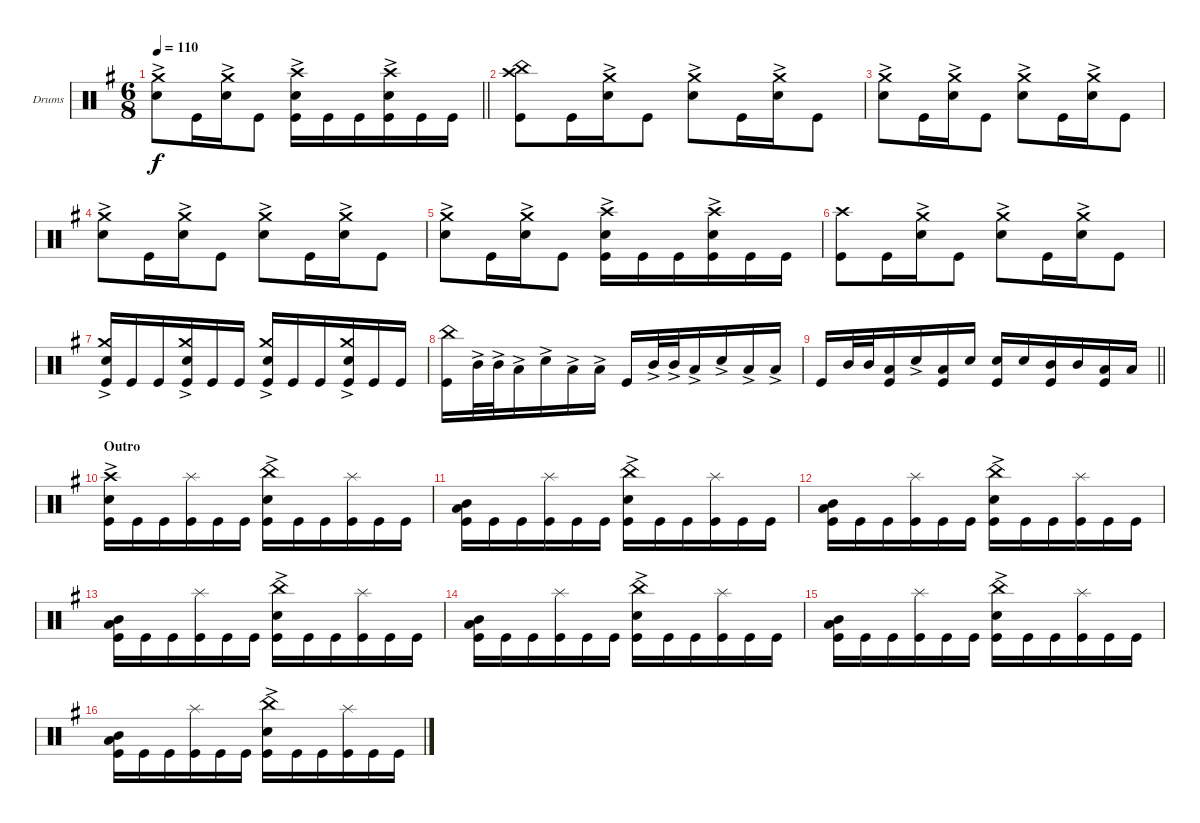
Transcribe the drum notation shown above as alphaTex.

\bracketExtendMode groupsimilarinstruments
\firstSystemTrackNameOrientation horizontal
\otherSystemsTrackNameOrientation horizontal
\track ("Drumkit" "Drums") {instrument percussion}
\staff {score}
\articulation defaults
\ts (6 8)
\tempo 110
\clef neutral
\barLineRight lightlight
\ks eminor
("Snare (hit) 2"{ac} "Crash medium (hit)").8{dy f} "Kick (hit)".16 ("Snare (hit) 2"{ac} "Crash medium (hit)").16 "Kick (hit)".8 ("Kick (hit)" "Snare (hit) 2"{ac} "Crash high (hit)").16 "Kick (hit)".16 "Kick (hit)".16 ("Kick (hit)" "Snare (hit) 2"{ac} "Crash high (hit)").16 "Kick (hit)".16 "Kick (hit)".16 |
("Kick (hit)" "Crash high (hit)" "China (hit)").8 "Kick (hit)".16 ("Snare (hit) 2"{ac} "Crash medium (hit)").16 "Kick (hit)".8 ("Snare (hit) 2"{ac} "Crash medium (hit)").8 "Kick (hit)".16 ("Snare (hit) 2"{ac} "Crash medium (hit)").16 "Kick (hit)".8 |
("Snare (hit) 2"{ac} "Crash medium (hit)").8 "Kick (hit)".16 ("Snare (hit) 2"{ac} "Crash medium (hit)").16 "Kick (hit)".8 ("Snare (hit) 2"{ac} "Crash medium (hit)").8 "Kick (hit)".16 ("Snare (hit) 2"{ac} "Crash medium (hit)").16 "Kick (hit)".8 |
("Snare (hit) 2"{ac} "Crash medium (hit)").8 "Kick (hit)".16 ("Snare (hit) 2"{ac} "Crash medium (hit)").16 "Kick (hit)".8 ("Snare (hit) 2"{ac} "Crash medium (hit)").8 "Kick (hit)".16 ("Snare (hit) 2"{ac} "Crash medium (hit)").16 "Kick (hit)".8 |
("Snare (hit) 2"{ac} "Crash medium (hit)").8 "Kick (hit)".16 ("Snare (hit) 2"{ac} "Crash medium (hit)").16 "Kick (hit)".8 ("Kick (hit)" "Snare (hit) 2"{ac} "Crash high (hit)").16 "Kick (hit)".16 "Kick (hit)".16 ("Kick (hit)" "Snare (hit) 2"{ac} "Crash high (hit)").16 "Kick (hit)".16 "Kick (hit)".16 |
("Kick (hit)" "Crash high (hit)").8 "Kick (hit)".16 ("Snare (hit) 2"{ac} "Crash medium (hit)").16 "Kick (hit)".8 ("Snare (hit) 2"{ac} "Crash medium (hit)").8 "Kick (hit)".16 ("Snare (hit) 2"{ac} "Crash medium (hit)").16 "Kick (hit)".8 |
("Kick (hit)" "Snare (hit) 2"{ac} "Crash medium (hit)").16 "Kick (hit)".16 "Kick (hit)".16 ("Kick (hit)" "Snare (hit) 2"{ac} "Crash medium (hit)").16 "Kick (hit)".16 "Kick (hit)".16 ("Kick (hit)" "Snare (hit) 2"{ac} "Crash medium (hit)").16 "Kick (hit)".16 "Kick (hit)".16 ("Kick (hit)" "Snare (hit) 2"{ac} "Crash medium (hit)").16 "Kick (hit)".16 "Kick (hit)".16 |
("Kick (hit)" "China (hit)").16 "Mid Tom (hit)"{ac}.32 "Mid Tom (hit)"{ac}.32 "Low Tom (hit)"{ac}.16 "Snare (hit) 2"{ac}.16 "Low Tom (hit)"{ac}.16 "Low Tom (hit)"{ac}.16 "Kick (hit)".16 "Mid Tom (hit)"{ac}.32 "Mid Tom (hit)"{ac}.32 "Low Tom (hit)"{ac}.16 "Snare (hit) 2"{ac}.16 "Low Tom (hit)"{ac}.16 "Low Tom (hit)"{ac}.16 |
\barLineRight lightlight "Kick (hit)".16 "Mid Tom (hit)".32 "Mid Tom (hit)".32
("Low Tom (hit)" "Kick (hit)").16 "Snare (hit) 2"{ac}.16 ("Low Tom (hit)" "Kick (hit)").16 "Snare (hit) 2".16 ("Snare (hit) 2" "Kick (hit)").16 "Snare (hit) 2".16 ("Mid Tom (hit)" "Kick (hit)").16 "Mid Tom (hit)".16 ("Low Tom (hit)" "Kick (hit)").16 "Low Tom (hit)".16 |
\section ("" "Outro")
("Kick (hit)" "Snare (hit) 2"{ac} "Crash high (hit)").16 "Kick (hit)".16 "Kick (hit)".16 ("Kick (hit)" "Splash (hit)").16 "Kick (hit)".16 "Kick (hit)".16 ("Kick (hit)" "China (hit)" "Snare (hit) 2"{ac}).16 "Kick (hit)".16 "Kick (hit)".16 ("Kick (hit)" "Splash (hit)").16 "Kick (hit)".16 "Kick (hit)".16 |
("Kick (hit)" "Mid Tom (hit)" "Low Tom (hit)").16 "Kick (hit)".16 "Kick (hit)".16 ("Kick (hit)" "Splash (hit)").16 "Kick (hit)".16 "Kick (hit)".16 ("Kick (hit)" "Snare (hit) 2"{ac} "China (hit)").16 "Kick (hit)".16 "Kick (hit)".16 ("Kick (hit)" "Splash (hit)").16 "Kick (hit)".16 "Kick (hit)".16 |
("Kick (hit)" "Mid Tom (hit)" "Low Tom (hit)").16 "Kick (hit)".16 "Kick (hit)".16 ("Kick (hit)" "Splash (hit)").16 "Kick (hit)".16 "Kick (hit)".16 ("Kick (hit)" "Snare (hit) 2"{ac} "China (hit)").16 "Kick (hit)".16 "Kick (hit)".16 ("Kick (hit)" "Splash (hit)").16 "Kick (hit)".16 "Kick (hit)".16 |
("Kick (hit)" "Mid Tom (hit)" "Low Tom (hit)").16 "Kick (hit)".16 "Kick (hit)".16 ("Kick (hit)" "Splash (hit)").16 "Kick (hit)".16 "Kick (hit)".16 ("Kick (hit)" "Snare (hit) 2"{ac} "China (hit)").16 "Kick (hit)".16 "Kick (hit)".16 ("Kick (hit)" "Splash (hit)").16 "Kick (hit)".16 "Kick (hit)".16 |
("Kick (hit)" "Mid Tom (hit)" "Low Tom (hit)").16 "Kick (hit)".16 "Kick (hit)".16 ("Kick (hit)" "Splash (hit)").16 "Kick (hit)".16 "Kick (hit)".16 ("Kick (hit)" "Snare (hit) 2"{ac} "China (hit)").16 "Kick (hit)".16 "Kick (hit)".16 ("Kick (hit)" "Splash (hit)").16 "Kick (hit)".16 "Kick (hit)".16 |
("Kick (hit)" "Mid Tom (hit)" "Low Tom (hit)").16 "Kick (hit)".16 "Kick (hit)".16 ("Kick (hit)" "Splash (hit)").16 "Kick (hit)".16 "Kick (hit)".16 ("Kick (hit)" "Snare (hit) 2"{ac} "China (hit)").16 "Kick (hit)".16 "Kick (hit)".16 ("Kick (hit)" "Splash (hit)").16 "Kick (hit)".16 "Kick (hit)".16 |
("Kick (hit)" "Mid Tom (hit)" "Low Tom (hit)").16 "Kick (hit)".16 "Kick (hit)".16 ("Kick (hit)" "Splash (hit)").16 "Kick (hit)".16 "Kick (hit)".16 ("Kick (hit)" "Snare (hit) 2"{ac} "China (hit)").16 "Kick (hit)".16 "Kick (hit)".16 ("Kick (hit)" "Splash (hit)").16 "Kick (hit)".16 "Kick (hit)".16
